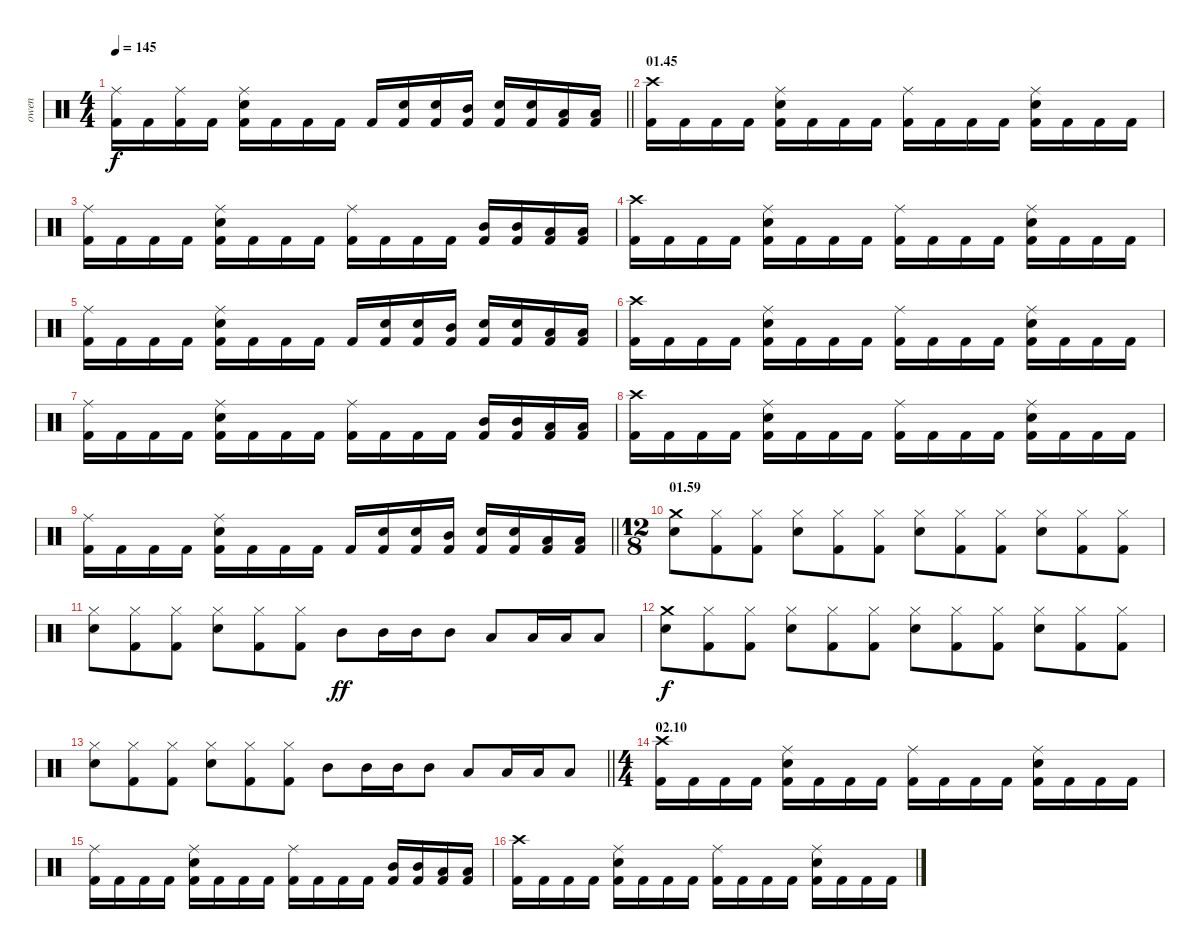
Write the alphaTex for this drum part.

\track ("owen" "owen") {instrument percussion}
\staff {score}
\articulation defaults
\ts (4 4)
\tempo 145
\clef neutral
\barLineRight lightlight
\ks c
("Ride (middle)" "Kick (hit) 2").16{dy f} "Kick (hit) 2".16 ("Ride (middle)" "Kick (hit) 2").16 "Kick (hit) 2".16 ("Ride (middle)" "Snare (hit) 2" "Kick (hit) 2").16 "Kick (hit) 2".16 "Kick (hit) 2".16 "Kick (hit) 2".16 "Kick (hit) 2".16 ("Snare (hit) 2" "Kick (hit) 2").16 ("Snare (hit) 2" "Kick (hit) 2").16 ("Mid Tom (hit)" "Kick (hit) 2").16 ("Snare (hit) 2" "Kick (hit) 2").16 ("Snare (hit) 2" "Kick (hit) 2").16 ("Low Tom (hit)" "Kick (hit) 2").16 ("Low Tom (hit)" "Kick (hit) 2").16 |
\section ("" "01.45")
("Crash high (hit)" "Kick (hit) 2").16 "Kick (hit) 2".16 "Kick (hit) 2".16 "Kick (hit) 2".16 ("Ride (middle)" "Snare (hit) 2" "Kick (hit) 2").16 "Kick (hit) 2".16 "Kick (hit) 2".16 "Kick (hit) 2".16 ("Ride (middle)" "Kick (hit) 2").16 "Kick (hit) 2".16 "Kick (hit) 2".16 "Kick (hit) 2".16 ("Ride (middle)" "Snare (hit) 2" "Kick (hit) 2").16 "Kick (hit) 2".16 "Kick (hit) 2".16 "Kick (hit) 2".16 |
("Ride (middle)" "Kick (hit) 2").16 "Kick (hit) 2".16 "Kick (hit) 2".16 "Kick (hit) 2".16 ("Ride (middle)" "Snare (hit) 2" "Kick (hit) 2").16 "Kick (hit) 2".16 "Kick (hit) 2".16 "Kick (hit) 2".16 ("Ride (middle)" "Kick (hit) 2").16 "Kick (hit) 2".16 "Kick (hit) 2".16 "Kick (hit) 2".16 ("Mid Tom (hit)" "Kick (hit) 2").16 ("Mid Tom (hit)" "Kick (hit) 2").16 ("Low Tom (hit)" "Kick (hit) 2").16 ("Low Tom (hit)" "Kick (hit) 2").16 |
("Crash high (hit)" "Kick (hit) 2").16 "Kick (hit) 2".16 "Kick (hit) 2".16 "Kick (hit) 2".16 ("Ride (middle)" "Snare (hit) 2" "Kick (hit) 2").16 "Kick (hit) 2".16 "Kick (hit) 2".16 "Kick (hit) 2".16 ("Ride (middle)" "Kick (hit) 2").16 "Kick (hit) 2".16 "Kick (hit) 2".16 "Kick (hit) 2".16 ("Ride (middle)" "Snare (hit) 2" "Kick (hit) 2").16 "Kick (hit) 2".16 "Kick (hit) 2".16 "Kick (hit) 2".16 |
("Ride (middle)" "Kick (hit) 2").16 "Kick (hit) 2".16 "Kick (hit) 2".16 "Kick (hit) 2".16 ("Ride (middle)" "Snare (hit) 2" "Kick (hit) 2").16 "Kick (hit) 2".16 "Kick (hit) 2".16 "Kick (hit) 2".16 "Kick (hit) 2".16 ("Snare (hit) 2" "Kick (hit) 2").16 ("Snare (hit) 2" "Kick (hit) 2").16 ("Mid Tom (hit)" "Kick (hit) 2").16 ("Snare (hit) 2" "Kick (hit) 2").16 ("Snare (hit) 2" "Kick (hit) 2").16 ("Low Tom (hit)" "Kick (hit) 2").16 ("Low Tom (hit)" "Kick (hit) 2").16 |
("Crash high (hit)" "Kick (hit) 2").16 "Kick (hit) 2".16 "Kick (hit) 2".16 "Kick (hit) 2".16 ("Ride (middle)" "Snare (hit) 2" "Kick (hit) 2").16 "Kick (hit) 2".16 "Kick (hit) 2".16 "Kick (hit) 2".16 ("Ride (middle)" "Kick (hit) 2").16 "Kick (hit) 2".16 "Kick (hit) 2".16 "Kick (hit) 2".16 ("Ride (middle)" "Snare (hit) 2" "Kick (hit) 2").16 "Kick (hit) 2".16 "Kick (hit) 2".16 "Kick (hit) 2".16 |
("Ride (middle)" "Kick (hit) 2").16 "Kick (hit) 2".16 "Kick (hit) 2".16 "Kick (hit) 2".16 ("Ride (middle)" "Snare (hit) 2" "Kick (hit) 2").16 "Kick (hit) 2".16 "Kick (hit) 2".16 "Kick (hit) 2".16 ("Ride (middle)" "Kick (hit) 2").16 "Kick (hit) 2".16 "Kick (hit) 2".16 "Kick (hit) 2".16 ("Mid Tom (hit)" "Kick (hit) 2").16 ("Mid Tom (hit)" "Kick (hit) 2").16 ("Low Tom (hit)" "Kick (hit) 2").16 ("Low Tom (hit)" "Kick (hit) 2").16 |
("Crash high (hit)" "Kick (hit) 2").16 "Kick (hit) 2".16 "Kick (hit) 2".16 "Kick (hit) 2".16 ("Ride (middle)" "Snare (hit) 2" "Kick (hit) 2").16 "Kick (hit) 2".16 "Kick (hit) 2".16 "Kick (hit) 2".16 ("Ride (middle)" "Kick (hit) 2").16 "Kick (hit) 2".16 "Kick (hit) 2".16 "Kick (hit) 2".16 ("Ride (middle)" "Snare (hit) 2" "Kick (hit) 2").16 "Kick (hit) 2".16 "Kick (hit) 2".16 "Kick (hit) 2".16 |
\barLineRight lightlight
("Ride (middle)" "Kick (hit) 2").16 "Kick (hit) 2".16 "Kick (hit) 2".16 "Kick (hit) 2".16 ("Ride (middle)" "Snare (hit) 2" "Kick (hit) 2").16 "Kick (hit) 2".16 "Kick (hit) 2".16 "Kick (hit) 2".16 "Kick (hit) 2".16 ("Snare (hit) 2" "Kick (hit) 2").16 ("Snare (hit) 2" "Kick (hit) 2").16 ("Mid Tom (hit)" "Kick (hit) 2").16 ("Snare (hit) 2" "Kick (hit) 2").16 ("Snare (hit) 2" "Kick (hit) 2").16 ("Low Tom (hit)" "Kick (hit) 2").16 ("Low Tom (hit)" "Kick (hit) 2").16 |
\ts (12 8)
\section ("" "01.59")
("Crash medium (hit)" "Snare (hit) 2").8 ("Hi-Hat (closed)" "Kick (hit) 2").8 ("Hi-Hat (closed)" "Kick (hit) 2").8 ("Hi-Hat (closed)" "Snare (hit) 2").8 ("Hi-Hat (closed)" "Kick (hit) 2").8 ("Hi-Hat (closed)" "Kick (hit) 2").8 ("Hi-Hat (closed)" "Snare (hit) 2").8 ("Hi-Hat (closed)" "Kick (hit) 2").8 ("Hi-Hat (closed)" "Kick (hit) 2").8 ("Hi-Hat (closed)" "Snare (hit) 2").8 ("Hi-Hat (closed)" "Kick (hit) 2").8 ("Hi-Hat (closed)" "Kick (hit) 2").8 |
("Hi-Hat (closed)" "Snare (hit) 2").8 ("Hi-Hat (closed)" "Kick (hit) 2").8 ("Hi-Hat (closed)" "Kick (hit) 2").8 ("Hi-Hat (closed)" "Snare (hit) 2").8 ("Hi-Hat (closed)" "Kick (hit) 2").8 ("Hi-Hat (closed)" "Kick (hit) 2").8 "Mid Tom (hit)".8{dy ff} "Mid Tom (hit)".16 "Mid Tom (hit)".16 "Mid Tom (hit)".8 "Low Tom (hit)".8 "Low Tom (hit)".16 "Low Tom (hit)".16 "Low Tom (hit)".8 |
("Crash medium (hit)" "Snare (hit) 2").8{dy f} ("Hi-Hat (closed)" "Kick (hit) 2").8 ("Hi-Hat (closed)" "Kick (hit) 2").8 ("Hi-Hat (closed)" "Snare (hit) 2").8 ("Hi-Hat (closed)" "Kick (hit) 2").8 ("Hi-Hat (closed)" "Kick (hit) 2").8 ("Hi-Hat (closed)" "Snare (hit) 2").8 ("Hi-Hat (closed)" "Kick (hit) 2").8 ("Hi-Hat (closed)" "Kick (hit) 2").8 ("Hi-Hat (closed)" "Snare (hit) 2").8 ("Hi-Hat (closed)" "Kick (hit) 2").8 ("Hi-Hat (closed)" "Kick (hit) 2").8 |
\barLineRight lightlight
("Hi-Hat (closed)" "Snare (hit) 2").8 ("Hi-Hat (closed)" "Kick (hit) 2").8 ("Hi-Hat (closed)" "Kick (hit) 2").8 ("Hi-Hat (closed)" "Snare (hit) 2").8 ("Hi-Hat (closed)" "Kick (hit) 2").8 ("Hi-Hat (closed)" "Kick (hit) 2").8 "Mid Tom (hit)".8 "Mid Tom (hit)".16 "Mid Tom (hit)".16 "Mid Tom (hit)".8 "Low Tom (hit)".8 "Low Tom (hit)".16 "Low Tom (hit)".16 "Low Tom (hit)".8 |
\ts (4 4)
\section ("" "02.10")
("Crash high (hit)" "Kick (hit) 2").16 "Kick (hit) 2".16 "Kick (hit) 2".16 "Kick (hit) 2".16 ("Ride (middle)" "Snare (hit) 2" "Kick (hit) 2").16 "Kick (hit) 2".16 "Kick (hit) 2".16 "Kick (hit) 2".16 ("Ride (middle)" "Kick (hit) 2").16 "Kick (hit) 2".16 "Kick (hit) 2".16 "Kick (hit) 2".16 ("Ride (middle)" "Snare (hit) 2" "Kick (hit) 2").16 "Kick (hit) 2".16 "Kick (hit) 2".16 "Kick (hit) 2".16 |
("Ride (middle)" "Kick (hit) 2").16 "Kick (hit) 2".16 "Kick (hit) 2".16 "Kick (hit) 2".16 ("Ride (middle)" "Snare (hit) 2" "Kick (hit) 2").16 "Kick (hit) 2".16 "Kick (hit) 2".16 "Kick (hit) 2".16 ("Ride (middle)" "Kick (hit) 2").16 "Kick (hit) 2".16 "Kick (hit) 2".16 "Kick (hit) 2".16 ("Mid Tom (hit)" "Kick (hit) 2").16 ("Mid Tom (hit)" "Kick (hit) 2").16 ("Low Tom (hit)" "Kick (hit) 2").16 ("Low Tom (hit)" "Kick (hit) 2").16 |
("Crash high (hit)" "Kick (hit) 2").16 "Kick (hit) 2".16 "Kick (hit) 2".16 "Kick (hit) 2".16 ("Ride (middle)" "Snare (hit) 2" "Kick (hit) 2").16 "Kick (hit) 2".16 "Kick (hit) 2".16 "Kick (hit) 2".16 ("Ride (middle)" "Kick (hit) 2").16 "Kick (hit) 2".16 "Kick (hit) 2".16 "Kick (hit) 2".16 ("Ride (middle)" "Snare (hit) 2" "Kick (hit) 2").16 "Kick (hit) 2".16 "Kick (hit) 2".16 "Kick (hit) 2".16
